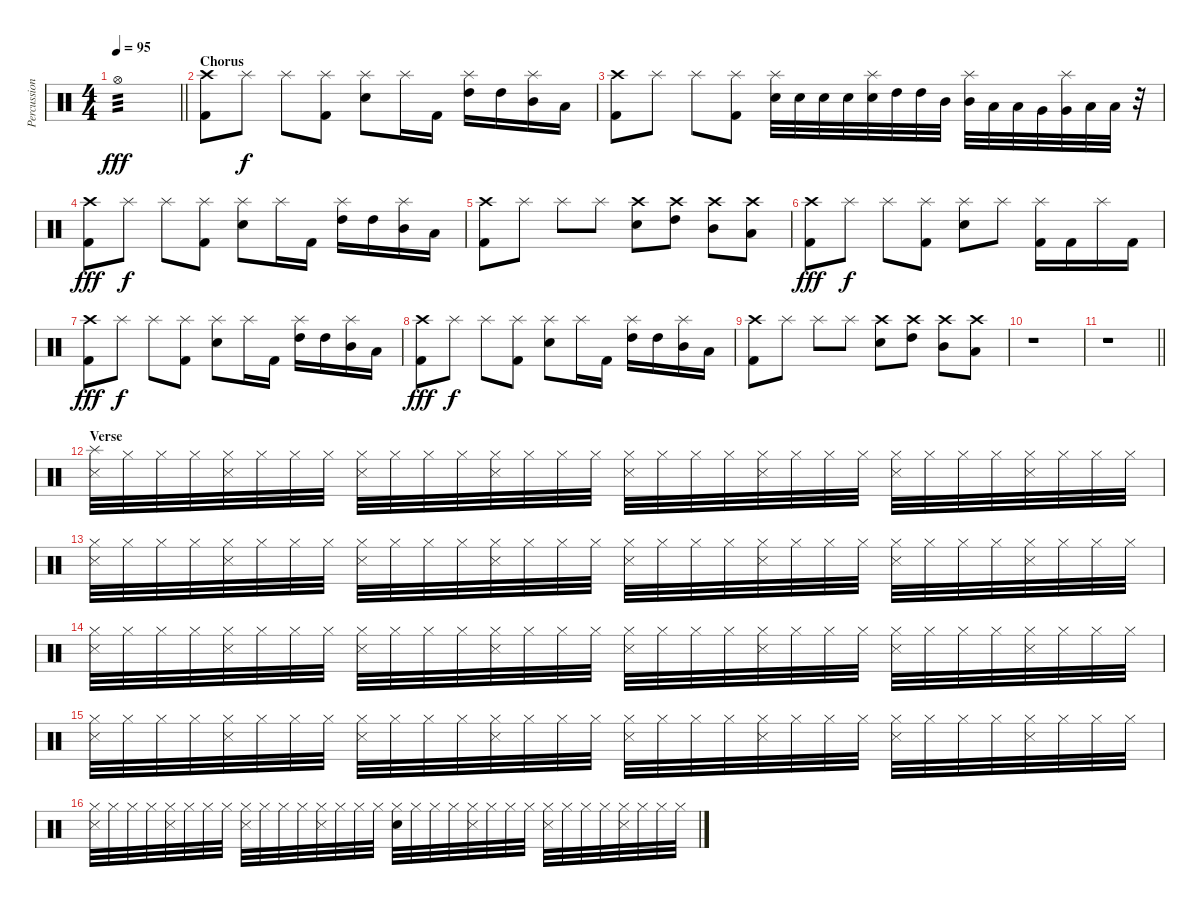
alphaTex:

\track ("Percussion" "Percussion") {instrument percussion}
\staff {score}
\articulation defaults
\ts (4 4)
\tempo 95
\clef neutral
\barLineRight lightlight
\ks c "Hi-Hat (open)".1{tp 3 dy fff volume 13}
|
\section ("" "Chorus")
("Crash high (hit)" "Kick (hit) 2").8 "Splash (hit)".8{dy f} "Splash (hit)".8 ("Splash (hit)" "Kick (hit) 2").8 ("Splash (hit)" "Electric Snare (hit)").8 "Splash (hit)".16 "Kick (hit) 2".16 ("Splash (hit)" "High Tom (hit)").16 "High Tom (hit)".16 ("Splash (hit)" "Mid Tom (hit)").16 "Low Tom (hit)".16 |
("Crash high (hit)" "Kick (hit) 2").8 "Splash (hit)".8 "Splash (hit)".8 ("Splash (hit)" "Kick (hit) 2").8 ("Splash (hit)" "Electric Snare (hit)").32 "Electric Snare (hit)".32 "Electric Snare (hit)".32 "Electric Snare (hit)".32 ("Splash (hit)" "Electric Snare (hit)").32 "High Tom (hit)".32 "High Tom (hit)".32 "Mid Tom (hit)".32 ("Splash (hit)" "Mid Tom (hit)").32 "Low Tom (hit)".32 "Low Tom (hit)".32 "Very Low Tom (hit)".32 ("Splash (hit)" "Very Low Tom (hit)").32 "Low Floor Tom (hit)".32 "Low Floor Tom (hit)".32 r.32 |
("Crash high (hit)" "Kick (hit) 2").8{dy fff} "Splash (hit)".8{dy f} "Splash (hit)".8 ("Splash (hit)" "Kick (hit) 2").8 ("Splash (hit)" "Electric Snare (hit)").8 "Splash (hit)".16 "Kick (hit) 2".16 ("Splash (hit)" "High Tom (hit)").16 "High Tom (hit)".16 ("Splash (hit)" "Mid Tom (hit)").16 "Low Tom (hit)".16 |
("Crash high (hit)" "Kick (hit) 2").8 "Splash (hit)".8 "Splash (hit)".8 "Splash (hit)".8 ("Crash high (hit)" "Electric Snare (hit)").8 ("Crash high (hit)" "High Tom (hit)").8 ("Crash high (hit)" "Mid Tom (hit)").8 ("Crash high (hit)" "Low Tom (hit)").8 |
("Crash high (hit)" "Kick (hit) 2").8{dy fff} "Splash (hit)".8{dy f} "Splash (hit)".8 ("Splash (hit)" "Kick (hit) 2").8 ("Splash (hit)" "Electric Snare (hit)").8 "Splash (hit)".8 ("Splash (hit)" "Kick (hit) 2").16 "Kick (hit) 2".16 "Splash (hit)".16 "Kick (hit) 2".16 |
("Crash high (hit)" "Kick (hit) 2").8{dy fff} "Splash (hit)".8{dy f} "Splash (hit)".8 ("Splash (hit)" "Kick (hit) 2").8 ("Splash (hit)" "Electric Snare (hit)").8 "Splash (hit)".16 "Kick (hit) 2".16 ("Splash (hit)" "High Tom (hit)").16 "High Tom (hit)".16 ("Splash (hit)" "Mid Tom (hit)").16 "Low Tom (hit)".16 |
("Crash high (hit)" "Kick (hit) 2").8{dy fff} "Splash (hit)".8{dy f} "Splash (hit)".8 ("Splash (hit)" "Kick (hit) 2").8 ("Splash (hit)" "Electric Snare (hit)").8 "Splash (hit)".16 "Kick (hit) 2".16 ("Splash (hit)" "High Tom (hit)").16 "High Tom (hit)".16 ("Splash (hit)" "Mid Tom (hit)").16 "Low Tom (hit)".16 |
("Crash high (hit)" "Kick (hit) 2").8 "Splash (hit)".8 "Splash (hit)".8 "Splash (hit)".8 ("Crash high (hit)" "Electric Snare (hit)").8 ("Crash high (hit)" "High Tom (hit)").8 ("Crash high (hit)" "Mid Tom (hit)").8 ("Crash high (hit)" "Low Tom (hit)").8 |
r.1 |
\barLineRight lightlight
r.1 |
\section ("" "Verse")
("Splash (hit)" "Snare (side stick) 3").32 "Hi-Hat (closed)".32 "Hi-Hat (closed)".32 "Hi-Hat (closed)".32 ("Hi-Hat (closed)" "Snare (side stick) 3").32 "Hi-Hat (closed)".32 "Hi-Hat (closed)".32 "Hi-Hat (closed)".32 ("Hi-Hat (closed)" "Snare (side stick) 3").32 "Hi-Hat (closed)".32 "Hi-Hat (closed)".32 "Hi-Hat (closed)".32 ("Hi-Hat (closed)" "Snare (side stick) 3").32 "Hi-Hat (closed)".32 "Hi-Hat (closed)".32 "Hi-Hat (closed)".32 ("Hi-Hat (closed)" "Snare (side stick) 3").32 "Hi-Hat (closed)".32 "Hi-Hat (closed)".32 "Hi-Hat (closed)".32 ("Hi-Hat (closed)" "Snare (side stick) 3").32 "Hi-Hat (closed)".32 "Hi-Hat (closed)".32 "Hi-Hat (closed)".32 ("Hi-Hat (closed)" "Snare (side stick) 3").32 "Hi-Hat (closed)".32 "Hi-Hat (closed)".32 "Hi-Hat (closed)".32 ("Hi-Hat (closed)" "Snare (side stick) 3").32 "Hi-Hat (closed)".32 "Hi-Hat (closed)".32 "Hi-Hat (closed)".32 |
("Hi-Hat (closed)" "Snare (side stick) 3").32 "Hi-Hat (closed)".32 "Hi-Hat (closed)".32 "Hi-Hat (closed)".32 ("Hi-Hat (closed)" "Snare (side stick) 3").32 "Hi-Hat (closed)".32 "Hi-Hat (closed)".32 "Hi-Hat (closed)".32 ("Hi-Hat (closed)" "Snare (side stick) 3").32 "Hi-Hat (closed)".32 "Hi-Hat (closed)".32 "Hi-Hat (closed)".32 ("Hi-Hat (closed)" "Snare (side stick) 3").32 "Hi-Hat (closed)".32 "Hi-Hat (closed)".32 "Hi-Hat (closed)".32 ("Hi-Hat (closed)" "Snare (side stick) 3").32 "Hi-Hat (closed)".32 "Hi-Hat (closed)".32 "Hi-Hat (closed)".32 ("Hi-Hat (closed)" "Snare (side stick) 3").32 "Hi-Hat (closed)".32 "Hi-Hat (closed)".32 "Hi-Hat (closed)".32 ("Hi-Hat (closed)" "Snare (side stick) 3").32 "Hi-Hat (closed)".32 "Hi-Hat (closed)".32 "Hi-Hat (closed)".32 ("Hi-Hat (closed)" "Snare (side stick) 3").32 "Hi-Hat (closed)".32 "Hi-Hat (closed)".32 "Hi-Hat (closed)".32 |
("Hi-Hat (closed)" "Snare (side stick) 3").32 "Hi-Hat (closed)".32 "Hi-Hat (closed)".32 "Hi-Hat (closed)".32 ("Hi-Hat (closed)" "Snare (side stick) 3").32 "Hi-Hat (closed)".32 "Hi-Hat (closed)".32 "Hi-Hat (closed)".32 ("Hi-Hat (closed)" "Snare (side stick) 3").32 "Hi-Hat (closed)".32 "Hi-Hat (closed)".32 "Hi-Hat (closed)".32 ("Hi-Hat (closed)" "Snare (side stick) 3").32 "Hi-Hat (closed)".32 "Hi-Hat (closed)".32 "Hi-Hat (closed)".32 ("Hi-Hat (closed)" "Snare (side stick) 3").32 "Hi-Hat (closed)".32 "Hi-Hat (closed)".32 "Hi-Hat (closed)".32 ("Hi-Hat (closed)" "Snare (side stick) 3").32 "Hi-Hat (closed)".32 "Hi-Hat (closed)".32 "Hi-Hat (closed)".32 ("Hi-Hat (closed)" "Snare (side stick) 3").32 "Hi-Hat (closed)".32 "Hi-Hat (closed)".32 "Hi-Hat (closed)".32 ("Hi-Hat (closed)" "Snare (side stick) 3").32 "Hi-Hat (closed)".32 "Hi-Hat (closed)".32 "Hi-Hat (closed)".32 |
("Hi-Hat (closed)" "Snare (side stick) 3").32 "Hi-Hat (closed)".32 "Hi-Hat (closed)".32 "Hi-Hat (closed)".32 ("Hi-Hat (closed)" "Snare (side stick) 3").32 "Hi-Hat (closed)".32 "Hi-Hat (closed)".32 "Hi-Hat (closed)".32 ("Hi-Hat (closed)" "Snare (side stick) 3").32 "Hi-Hat (closed)".32 "Hi-Hat (closed)".32 "Hi-Hat (closed)".32 ("Hi-Hat (closed)" "Snare (side stick) 3").32 "Hi-Hat (closed)".32 "Hi-Hat (closed)".32 "Hi-Hat (closed)".32 ("Hi-Hat (closed)" "Snare (side stick) 3").32 "Hi-Hat (closed)".32 "Hi-Hat (closed)".32 "Hi-Hat (closed)".32 ("Hi-Hat (closed)" "Snare (side stick) 3").32 "Hi-Hat (closed)".32 "Hi-Hat (closed)".32 "Hi-Hat (closed)".32 ("Hi-Hat (closed)" "Snare (side stick) 3").32 "Hi-Hat (closed)".32 "Hi-Hat (closed)".32 "Hi-Hat (closed)".32 ("Hi-Hat (closed)" "Snare (side stick) 3").32 "Hi-Hat (closed)".32 "Hi-Hat (closed)".32 "Hi-Hat (closed)".32 |
("Hi-Hat (closed)" "Snare (side stick) 3").32 "Hi-Hat (closed)".32 "Hi-Hat (closed)".32 "Hi-Hat (closed)".32 ("Hi-Hat (closed)" "Snare (side stick) 3").32 "Hi-Hat (closed)".32 "Hi-Hat (closed)".32 "Hi-Hat (closed)".32 ("Hi-Hat (closed)" "Snare (side stick) 3").32 "Hi-Hat (closed)".32 "Hi-Hat (closed)".32 "Hi-Hat (closed)".32 ("Hi-Hat (closed)" "Snare (side stick) 3").32 "Hi-Hat (closed)".32 "Hi-Hat (closed)".32 "Hi-Hat (closed)".32 ("Hi-Hat (closed)" "Electric Snare (hit)").32 "Hi-Hat (closed)".32 "Hi-Hat (closed)".32 "Hi-Hat (closed)".32 ("Hi-Hat (closed)" "Snare (side stick) 3").32 "Hi-Hat (closed)".32 "Hi-Hat (closed)".32 "Hi-Hat (closed)".32 ("Hi-Hat (closed)" "Snare (side stick) 3").32 "Hi-Hat (closed)".32 "Hi-Hat (closed)".32 "Hi-Hat (closed)".32 ("Hi-Hat (closed)" "Snare (side stick) 3").32 "Hi-Hat (closed)".32 "Hi-Hat (closed)".32 "Hi-Hat (closed)".32
